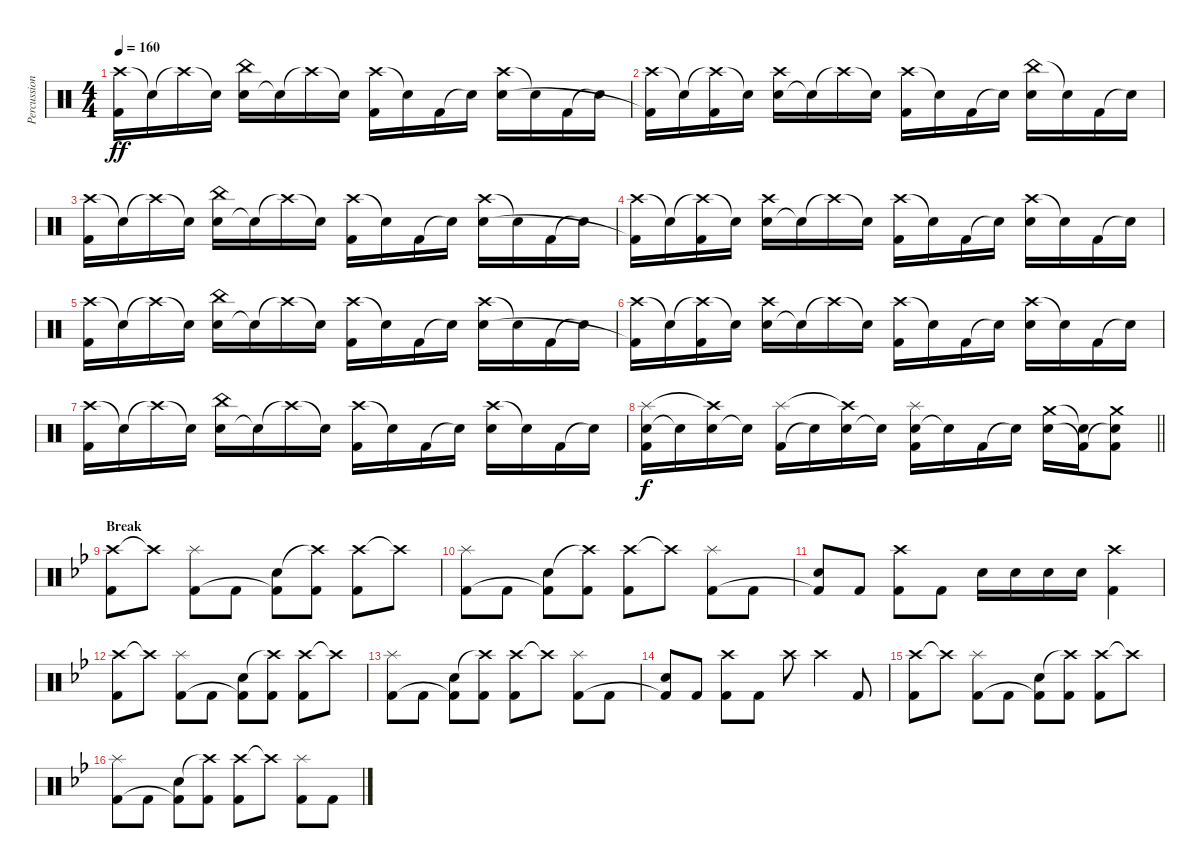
\track ("Percussion" "Percussion") {instrument percussion}
\staff {score}
\articulation defaults
\ts (4 4)
\tempo 160
\clef neutral
\ks c
("Crash high (hit)" "Kick (hit) 2").16{dy ff} "Snare (hit)"{t}.16 "Crash high (hit)"{t}.16 "Snare (hit)"{t}.16 ("Electric Snare (hit)" "China (hit)").16 "Snare (hit)"{t}.16 "Crash high (hit)"{t}.16 "Snare (hit)"{t}.16 ("Crash high (hit)" "Kick (hit) 2").16 "Snare (hit)"{t}.16 "Kick (hit) 2".16 "Snare (hit)"{t}.16 ("Crash high (hit)" "Electric Snare (hit)").16 "Snare (hit)"{t}.16 "Kick (hit) 2".16 "Snare (hit)"{t}.16 |
("Crash high (hit)" "Kick (hit) 2"{t}).16 "Snare (hit)"{t}.16 ("Crash high (hit)"{t} "Kick (hit) 2").16 "Snare (hit)"{t}.16 ("Electric Snare (hit)" "Crash high (hit)").16 "Snare (hit)"{t}.16 "Crash high (hit)"{t}.16 "Snare (hit)"{t}.16 ("Crash high (hit)" "Kick (hit) 2").16 "Snare (hit)"{t}.16 "Kick (hit) 2".16 "Snare (hit)"{t}.16 ("China (hit)" "Electric Snare (hit)").16 "Snare (hit)"{t}.16 "Kick (hit) 2".16 "Snare (hit)"{t}.16 |
("Crash high (hit)" "Kick (hit) 2").16 "Snare (hit)"{t}.16 "Crash high (hit)"{t}.16 "Snare (hit)"{t}.16 ("Electric Snare (hit)" "China (hit)").16 "Snare (hit)"{t}.16 "Crash high (hit)"{t}.16 "Snare (hit)"{t}.16 ("Crash high (hit)" "Kick (hit) 2").16 "Snare (hit)"{t}.16 "Kick (hit) 2".16 "Snare (hit)"{t}.16 ("Crash high (hit)" "Electric Snare (hit)").16 "Snare (hit)"{t}.16 "Kick (hit) 2".16 "Snare (hit)"{t}.16 |
("Crash high (hit)" "Kick (hit) 2"{t}).16 "Snare (hit)"{t}.16 ("Crash high (hit)"{t} "Kick (hit) 2").16 "Snare (hit)"{t}.16 ("Electric Snare (hit)" "Crash high (hit)").16 "Snare (hit)"{t}.16 "Crash high (hit)"{t}.16 "Snare (hit)"{t}.16 ("Crash high (hit)" "Kick (hit) 2").16 "Snare (hit)"{t}.16 "Kick (hit) 2".16 "Snare (hit)"{t}.16 ("Crash high (hit)" "Electric Snare (hit)").16 "Snare (hit)"{t}.16 "Kick (hit) 2".16 "Snare (hit)"{t}.16 |
("Crash high (hit)" "Kick (hit) 2").16 "Snare (hit)"{t}.16 "Crash high (hit)"{t}.16 "Snare (hit)"{t}.16 ("Electric Snare (hit)" "China (hit)").16 "Snare (hit)"{t}.16 "Crash high (hit)"{t}.16 "Snare (hit)"{t}.16 ("Crash high (hit)" "Kick (hit) 2").16 "Snare (hit)"{t}.16 "Kick (hit) 2".16 "Snare (hit)"{t}.16 ("Crash high (hit)" "Electric Snare (hit)").16 "Snare (hit)"{t}.16 "Kick (hit) 2".16 "Snare (hit)"{t}.16 |
("Crash high (hit)" "Kick (hit) 2"{t}).16 "Snare (hit)"{t}.16 ("Crash high (hit)"{t} "Kick (hit) 2").16 "Snare (hit)"{t}.16 ("Electric Snare (hit)" "Crash high (hit)").16 "Snare (hit)"{t}.16 "Crash high (hit)"{t}.16 "Snare (hit)"{t}.16 ("Crash high (hit)" "Kick (hit) 2").16 "Snare (hit)"{t}.16 "Kick (hit) 2".16 "Snare (hit)"{t}.16 ("Crash high (hit)" "Electric Snare (hit)").16 "Snare (hit)"{t}.16 "Kick (hit) 2".16 "Snare (hit)"{t}.16 |
("Crash high (hit)" "Kick (hit) 2").16 "Snare (hit)"{t}.16 "Crash high (hit)"{t}.16 "Snare (hit)"{t}.16 ("Electric Snare (hit)" "China (hit)").16 "Snare (hit)"{t}.16 "Crash high (hit)"{t}.16 "Snare (hit)"{t}.16 ("Crash high (hit)" "Kick (hit) 2").16 "Snare (hit)"{t}.16 "Kick (hit) 2".16 "Snare (hit)"{t}.16 ("Crash high (hit)" "Electric Snare (hit)").16 "Snare (hit)"{t}.16 "Kick (hit) 2".16 "Snare (hit)"{t}.16 |
\barLineRight lightlight
("Electric Snare (hit)" "Splash (hit)" "Kick (hit) 2").16{dy f} "Snare (hit)"{t}.16 ("Electric Snare (hit)" "Crash high (hit)"{t}).16 "Snare (hit)"{t}.16 ("Kick (hit) 2" "Splash (hit)").16 "Snare (hit)"{t}.16 ("Electric Snare (hit)" "Crash high (hit)"{t}).16 "Snare (hit)"{t}.16 ("Electric Snare (hit)" "Splash (hit)" "Kick (hit) 2").16 "Snare (hit)"{t}.16 "Kick (hit) 2".16 "Snare (hit)"{t}.16 ("Crash medium (hit)" "Electric Snare (hit)").16 ("Snare (hit)"{t} "Kick (hit) 2"{t}).16 ("Crash medium (hit)" "Snare (hit)"{t} "Kick (hit) 2").8 |
\section ("" "Break")
\ks bb
("Crash high (hit)" "Kick (hit) 2").8 "Crash high (hit)"{t}.8 ("Splash (hit)" "Kick (hit) 2").8 "Kick (hit) 2".8 ("Electric Snare (hit)" "Kick (hit) 2"{t}).8 ("Crash high (hit)"{t} "Kick (hit) 2").8 ("Crash high (hit)" "Kick (hit) 2").8 "Crash high (hit)"{t}.8 |
("Splash (hit)" "Kick (hit) 2").8 "Kick (hit) 2".8 ("Electric Snare (hit)" "Kick (hit) 2"{t}).8 ("Crash high (hit)"{t} "Kick (hit) 2").8 ("Crash high (hit)" "Kick (hit) 2").8 "Crash high (hit)"{t}.8 ("Splash (hit)" "Kick (hit) 2").8 "Kick (hit) 2".8 |
("Electric Snare (hit)" "Kick (hit) 2"{t}).8 "Kick (hit) 2".8 ("Crash high (hit)" "Kick (hit) 2").8 "Kick (hit) 2".8 "Electric Snare (hit)".16 "Electric Snare (hit)".16 "Electric Snare (hit)".16 "Electric Snare (hit)".16 ("Crash high (hit)" "Kick (hit) 2").4 |
("Crash high (hit)" "Kick (hit) 2").8 "Crash high (hit)"{t}.8 ("Splash (hit)" "Kick (hit) 2").8 "Kick (hit) 2".8 ("Electric Snare (hit)" "Kick (hit) 2"{t}).8 ("Crash high (hit)"{t} "Kick (hit) 2").8 ("Crash high (hit)" "Kick (hit) 2").8 "Crash high (hit)"{t}.8 |
("Splash (hit)" "Kick (hit) 2").8 "Kick (hit) 2".8 ("Electric Snare (hit)" "Kick (hit) 2"{t}).8 ("Crash high (hit)"{t} "Kick (hit) 2").8 ("Crash high (hit)" "Kick (hit) 2").8 "Crash high (hit)"{t}.8 ("Splash (hit)" "Kick (hit) 2").8 "Kick (hit) 2".8 |
("Electric Snare (hit)" "Kick (hit) 2"{t}).8 "Kick (hit) 2".8 ("Crash high (hit)" "Kick (hit) 2").8 "Kick (hit) 2".8 "Crash high (hit)".8 "Crash high (hit)".4 "Kick (hit) 2".8 |
("Crash high (hit)" "Kick (hit) 2").8 "Crash high (hit)"{t}.8 ("Splash (hit)" "Kick (hit) 2").8 "Kick (hit) 2".8 ("Electric Snare (hit)" "Kick (hit) 2"{t}).8 ("Crash high (hit)"{t} "Kick (hit) 2").8 ("Crash high (hit)" "Kick (hit) 2").8 "Crash high (hit)"{t}.8 |
("Splash (hit)" "Kick (hit) 2").8 "Kick (hit) 2".8 ("Electric Snare (hit)" "Kick (hit) 2"{t}).8 ("Crash high (hit)"{t} "Kick (hit) 2").8 ("Crash high (hit)" "Kick (hit) 2").8 "Crash high (hit)"{t}.8 ("Splash (hit)" "Kick (hit) 2").8 "Kick (hit) 2".8
